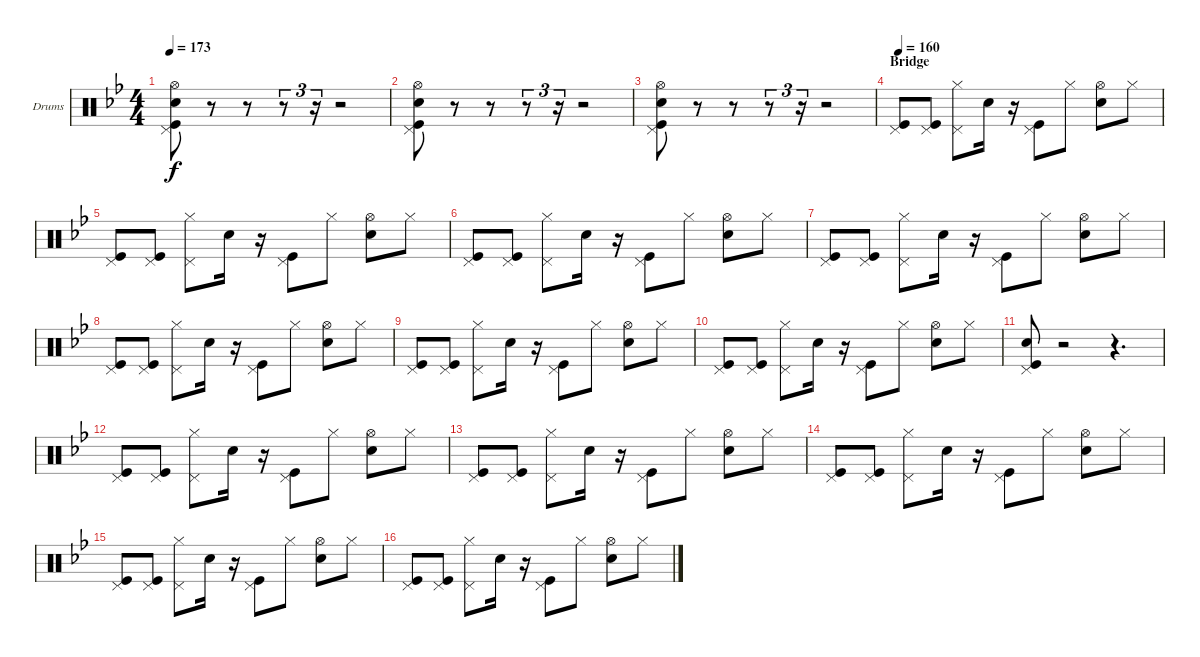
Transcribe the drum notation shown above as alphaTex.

\defaultSystemsLayout 4
\bracketExtendMode groupsimilarinstruments
\firstSystemTrackNameOrientation horizontal
\otherSystemsTrackNameOrientation horizontal
\track ("Drumkit" "Drums") {instrument percussion}
\staff {score}
\articulation defaults
\ts (4 4)
\tempo 173
\clef neutral
\ks bb
("Hi-Hat (open)" "Pedal Hi-Hat (hit)" "Snare (hit) 2" "Kick (hit)").8{dy f} r.8 r.8 r.8{tu (3 2)} r.16{tu (3 2)} r.2 |
("Hi-Hat (open)" "Pedal Hi-Hat (hit)" "Snare (hit) 2" "Kick (hit)").8 r.8 r.8 r.8{tu (3 2)} r.16{tu (3 2)} r.2 |
("Hi-Hat (open)" "Pedal Hi-Hat (hit)" "Snare (hit) 2" "Kick (hit)").8 r.8 r.8 r.8{tu (3 2)} r.16{tu (3 2)} r.2 |
\section ("" "Bridge")
\tempo 160
("Pedal Hi-Hat (hit)" "Kick (hit)").8 ("Pedal Hi-Hat (hit)" "Kick (hit)").8 ("Hi-Hat (closed)" "Pedal Hi-Hat (hit)").8 "Snare (hit) 2".16 r.16 ("Kick (hit)" "Pedal Hi-Hat (hit)").8 "Hi-Hat (closed)".8 ("Hi-Hat (open)" "Snare (hit) 2").8 "Hi-Hat (closed)".8 |
("Pedal Hi-Hat (hit)" "Kick (hit)").8 ("Pedal Hi-Hat (hit)" "Kick (hit)").8 ("Hi-Hat (closed)" "Pedal Hi-Hat (hit)").8 "Snare (hit) 2".16 r.16 ("Kick (hit)" "Pedal Hi-Hat (hit)").8 "Hi-Hat (closed)".8 ("Hi-Hat (open)" "Snare (hit) 2").8 "Hi-Hat (closed)".8 |
("Pedal Hi-Hat (hit)" "Kick (hit)").8 ("Pedal Hi-Hat (hit)" "Kick (hit)").8 ("Hi-Hat (closed)" "Pedal Hi-Hat (hit)").8 "Snare (hit) 2".16 r.16 ("Kick (hit)" "Pedal Hi-Hat (hit)").8 "Hi-Hat (closed)".8 ("Hi-Hat (open)" "Snare (hit) 2").8 "Hi-Hat (closed)".8 |
("Pedal Hi-Hat (hit)" "Kick (hit)").8 ("Pedal Hi-Hat (hit)" "Kick (hit)").8 ("Hi-Hat (closed)" "Pedal Hi-Hat (hit)").8 "Snare (hit) 2".16 r.16 ("Kick (hit)" "Pedal Hi-Hat (hit)").8 "Hi-Hat (closed)".8 ("Hi-Hat (open)" "Snare (hit) 2").8 "Hi-Hat (closed)".8 |
("Pedal Hi-Hat (hit)" "Kick (hit)").8 ("Pedal Hi-Hat (hit)" "Kick (hit)").8 ("Hi-Hat (closed)" "Pedal Hi-Hat (hit)").8 "Snare (hit) 2".16 r.16 ("Kick (hit)" "Pedal Hi-Hat (hit)").8 "Hi-Hat (closed)".8 ("Hi-Hat (open)" "Snare (hit) 2").8 "Hi-Hat (closed)".8 |
("Pedal Hi-Hat (hit)" "Kick (hit)").8 ("Pedal Hi-Hat (hit)" "Kick (hit)").8 ("Hi-Hat (closed)" "Pedal Hi-Hat (hit)").8 "Snare (hit) 2".16 r.16 ("Kick (hit)" "Pedal Hi-Hat (hit)").8 "Hi-Hat (closed)".8 ("Hi-Hat (open)" "Snare (hit) 2").8 "Hi-Hat (closed)".8 |
("Pedal Hi-Hat (hit)" "Kick (hit)").8 ("Pedal Hi-Hat (hit)" "Kick (hit)").8 ("Hi-Hat (closed)" "Pedal Hi-Hat (hit)").8 "Snare (hit) 2".16 r.16 ("Kick (hit)" "Pedal Hi-Hat (hit)").8 "Hi-Hat (closed)".8 ("Hi-Hat (open)" "Snare (hit) 2").8 "Hi-Hat (closed)".8 |
("Pedal Hi-Hat (hit)" "Snare (hit) 2" "Kick (hit)").8 r.2 r.4{d} |
("Pedal Hi-Hat (hit)" "Kick (hit)").8 ("Pedal Hi-Hat (hit)" "Kick (hit)").8 ("Hi-Hat (closed)" "Pedal Hi-Hat (hit)").8 "Snare (hit) 2".16 r.16 ("Kick (hit)" "Pedal Hi-Hat (hit)").8 "Hi-Hat (closed)".8 ("Hi-Hat (open)" "Snare (hit) 2").8 "Hi-Hat (closed)".8 |
("Pedal Hi-Hat (hit)" "Kick (hit)").8 ("Pedal Hi-Hat (hit)" "Kick (hit)").8 ("Hi-Hat (closed)" "Pedal Hi-Hat (hit)").8 "Snare (hit) 2".16 r.16 ("Kick (hit)" "Pedal Hi-Hat (hit)").8 "Hi-Hat (closed)".8 ("Hi-Hat (open)" "Snare (hit) 2").8 "Hi-Hat (closed)".8 |
("Pedal Hi-Hat (hit)" "Kick (hit)").8 ("Pedal Hi-Hat (hit)" "Kick (hit)").8 ("Hi-Hat (closed)" "Pedal Hi-Hat (hit)").8 "Snare (hit) 2".16 r.16 ("Kick (hit)" "Pedal Hi-Hat (hit)").8 "Hi-Hat (closed)".8 ("Hi-Hat (open)" "Snare (hit) 2").8 "Hi-Hat (closed)".8 |
("Pedal Hi-Hat (hit)" "Kick (hit)").8 ("Pedal Hi-Hat (hit)" "Kick (hit)").8 ("Hi-Hat (closed)" "Pedal Hi-Hat (hit)").8 "Snare (hit) 2".16 r.16 ("Kick (hit)" "Pedal Hi-Hat (hit)").8 "Hi-Hat (closed)".8 ("Hi-Hat (open)" "Snare (hit) 2").8 "Hi-Hat (closed)".8 |
("Pedal Hi-Hat (hit)" "Kick (hit)").8 ("Pedal Hi-Hat (hit)" "Kick (hit)").8 ("Hi-Hat (closed)" "Pedal Hi-Hat (hit)").8 "Snare (hit) 2".16 r.16 ("Kick (hit)" "Pedal Hi-Hat (hit)").8 "Hi-Hat (closed)".8 ("Hi-Hat (open)" "Snare (hit) 2").8 "Hi-Hat (closed)".8
